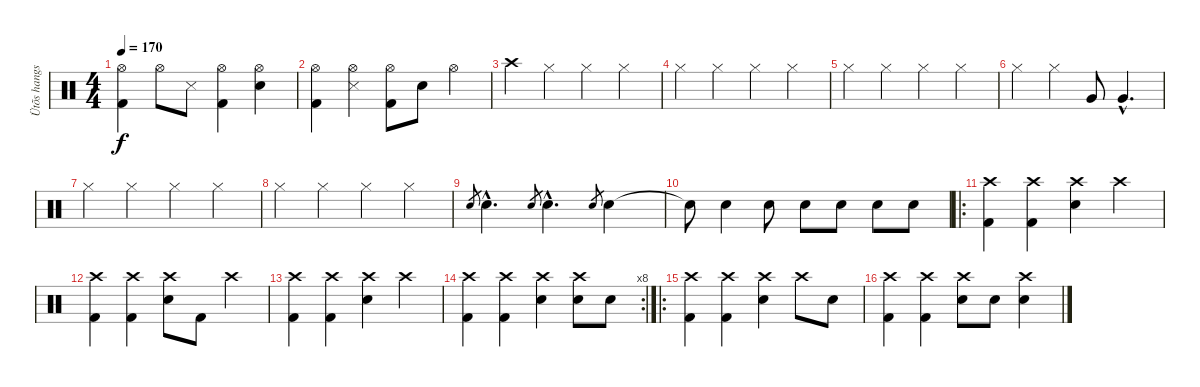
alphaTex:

\track ("Ütõs hangszer" "Ütõs hangs") {instrument percussion}
\staff {score}
\articulation defaults
\ts (4 4)
\tempo 170
\clef neutral
\ks c
("Hi-Hat (open)" "Kick (hit) 2").4{dy f} "Hi-Hat (open)".8 "Snare (side stick) 3".8 ("Hi-Hat (open)" "Kick (hit) 2").4 ("Hi-Hat (open)" "Electric Snare (hit)").4 |
("Hi-Hat (open)" "Kick (hit) 2").4 ("Hi-Hat (open)" "Snare (side stick) 3").4 ("Hi-Hat (open)" "Kick (hit) 2").8 "Electric Snare (hit)".8 "Hi-Hat (open)".4 |
"Crash high (hit)".4 "Hi-Hat (closed)".4 "Hi-Hat (closed)".4 "Hi-Hat (closed)".4 |
"Hi-Hat (closed)".4 "Hi-Hat (closed)".4 "Hi-Hat (closed)".4 "Hi-Hat (closed)".4 |
"Hi-Hat (closed)".4 "Hi-Hat (closed)".4 "Hi-Hat (closed)".4 "Hi-Hat (closed)".4 |
"Hi-Hat (closed)".4 "Hi-Hat (closed)".4 "Very Low Tom (hit)".8 "Very Low Tom (hit)"{hac}.4{d} |
"Hi-Hat (closed)".4 "Hi-Hat (closed)".4 "Hi-Hat (closed)".4 "Hi-Hat (closed)".4 |
"Hi-Hat (closed)".4 "Hi-Hat (closed)".4 "Hi-Hat (closed)".4 "Hi-Hat (closed)".4 |
"Electric Snare (hit)".8{gr} "Electric Snare (hit)"{hac}.4{d} "Electric Snare (hit)".8{gr} "Electric Snare (hit)"{hac}.4{d} "Electric Snare (hit)".8{gr} "Electric Snare (hit)".4 |
"Electric Snare (hit)"{t}.8 "Electric Snare (hit)".4 "Electric Snare (hit)".8 "Electric Snare (hit)".8 "Electric Snare (hit)".8 "Electric Snare (hit)".8 "Electric Snare (hit)".8 |
\ro
("Crash high (hit)" "Kick (hit) 2").4 ("Crash high (hit)" "Kick (hit) 2").4 ("Crash high (hit)" "Electric Snare (hit)").4 "Crash high (hit)".4 |
("Crash high (hit)" "Kick (hit) 2").4 ("Crash high (hit)" "Kick (hit) 2").4 ("Crash high (hit)" "Electric Snare (hit)").8 "Kick (hit) 2".8 "Crash high (hit)".4 |
("Crash high (hit)" "Kick (hit) 2").4 ("Crash high (hit)" "Kick (hit) 2").4 ("Crash high (hit)" "Electric Snare (hit)").4 "Crash high (hit)".4 |
\rc 8
("Crash high (hit)" "Kick (hit) 2").4 ("Crash high (hit)" "Kick (hit) 2").4 ("Crash high (hit)" "Electric Snare (hit)").4 ("Crash high (hit)" "Electric Snare (hit)").8 "Electric Snare (hit)".8 |
\ro
("Crash high (hit)" "Kick (hit) 2").4 ("Crash high (hit)" "Kick (hit) 2").4 ("Crash high (hit)" "Electric Snare (hit)").4 "Crash high (hit)".8 "Electric Snare (hit)".8 |
("Crash high (hit)" "Kick (hit) 2").4 ("Crash high (hit)" "Kick (hit) 2").4 ("Crash high (hit)" "Electric Snare (hit)").8 "Electric Snare (hit)".8 ("Crash high (hit)" "Electric Snare (hit)").4
